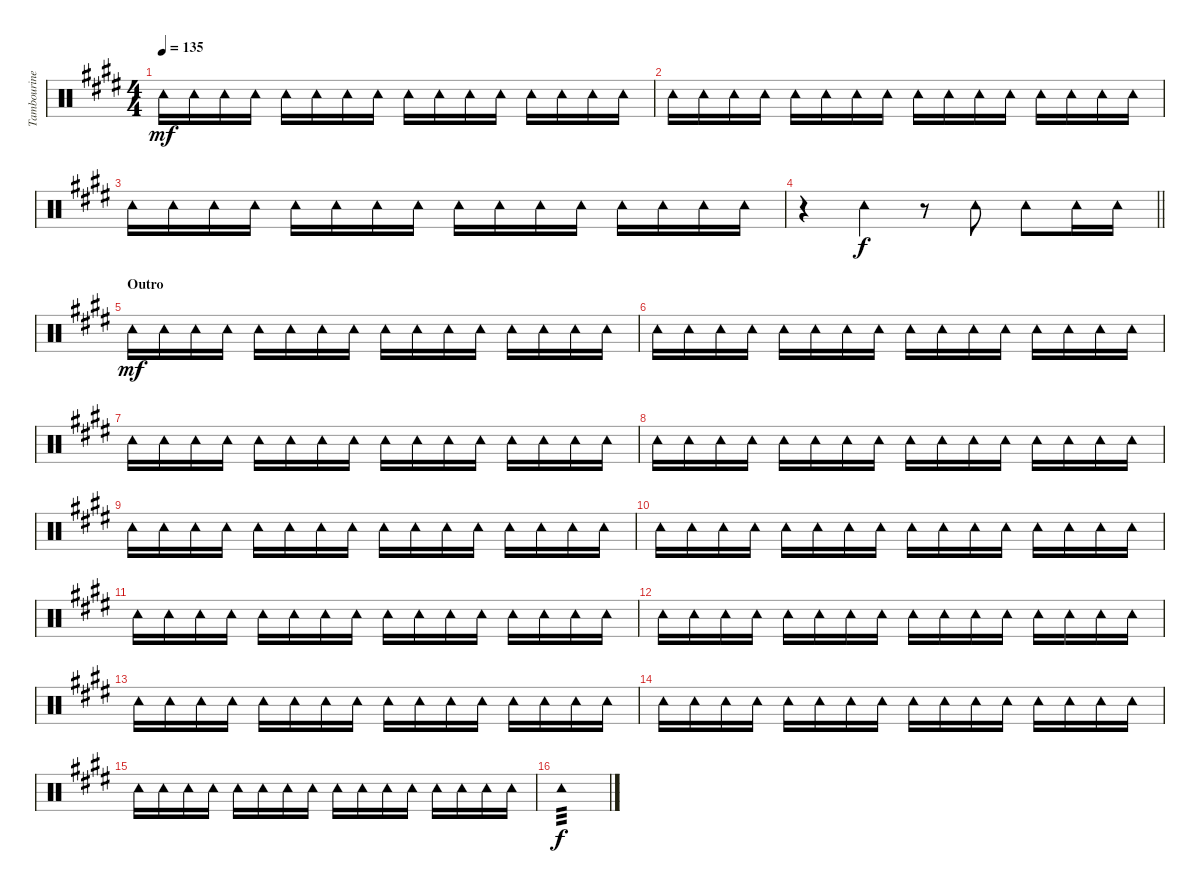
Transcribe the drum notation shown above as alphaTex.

\track ("Tambourine" "Tambourine") {instrument percussion}
\staff {score}
\articulation defaults
\ts (4 4)
\tempo 135
\clef neutral
\ks e "Tambourine (hit)".16{dy mf} "Tambourine (hit)".16 "Tambourine (hit)".16 "Tambourine (hit)".16 "Tambourine (hit)".16 "Tambourine (hit)".16 "Tambourine (hit)".16 "Tambourine (hit)".16 "Tambourine (hit)".16 "Tambourine (hit)".16 "Tambourine (hit)".16 "Tambourine (hit)".16 "Tambourine (hit)".16 "Tambourine (hit)".16 "Tambourine (hit)".16 "Tambourine (hit)".16
|
"Tambourine (hit)".16 "Tambourine (hit)".16 "Tambourine (hit)".16 "Tambourine (hit)".16 "Tambourine (hit)".16 "Tambourine (hit)".16 "Tambourine (hit)".16 "Tambourine (hit)".16 "Tambourine (hit)".16 "Tambourine (hit)".16 "Tambourine (hit)".16 "Tambourine (hit)".16 "Tambourine (hit)".16 "Tambourine (hit)".16 "Tambourine (hit)".16 "Tambourine (hit)".16 |
"Tambourine (hit)".16 "Tambourine (hit)".16 "Tambourine (hit)".16 "Tambourine (hit)".16 "Tambourine (hit)".16 "Tambourine (hit)".16 "Tambourine (hit)".16 "Tambourine (hit)".16 "Tambourine (hit)".16 "Tambourine (hit)".16 "Tambourine (hit)".16 "Tambourine (hit)".16 "Tambourine (hit)".16 "Tambourine (hit)".16 "Tambourine (hit)".16 "Tambourine (hit)".16 |
\barLineRight lightlight
r.4 "Tambourine (hit)".4{dy f} r.8 "Tambourine (hit)".8 "Tambourine (hit)".8 "Tambourine (hit)".16 "Tambourine (hit)".16 |
\section ("" "Outro")
"Tambourine (hit)".16{dy mf} "Tambourine (hit)".16 "Tambourine (hit)".16 "Tambourine (hit)".16 "Tambourine (hit)".16 "Tambourine (hit)".16 "Tambourine (hit)".16 "Tambourine (hit)".16 "Tambourine (hit)".16 "Tambourine (hit)".16 "Tambourine (hit)".16 "Tambourine (hit)".16 "Tambourine (hit)".16 "Tambourine (hit)".16 "Tambourine (hit)".16 "Tambourine (hit)".16 |
"Tambourine (hit)".16 "Tambourine (hit)".16 "Tambourine (hit)".16 "Tambourine (hit)".16 "Tambourine (hit)".16 "Tambourine (hit)".16 "Tambourine (hit)".16 "Tambourine (hit)".16 "Tambourine (hit)".16 "Tambourine (hit)".16 "Tambourine (hit)".16 "Tambourine (hit)".16 "Tambourine (hit)".16 "Tambourine (hit)".16 "Tambourine (hit)".16 "Tambourine (hit)".16 |
"Tambourine (hit)".16 "Tambourine (hit)".16 "Tambourine (hit)".16 "Tambourine (hit)".16 "Tambourine (hit)".16 "Tambourine (hit)".16 "Tambourine (hit)".16 "Tambourine (hit)".16 "Tambourine (hit)".16 "Tambourine (hit)".16 "Tambourine (hit)".16 "Tambourine (hit)".16 "Tambourine (hit)".16 "Tambourine (hit)".16 "Tambourine (hit)".16 "Tambourine (hit)".16 |
"Tambourine (hit)".16 "Tambourine (hit)".16 "Tambourine (hit)".16 "Tambourine (hit)".16 "Tambourine (hit)".16 "Tambourine (hit)".16 "Tambourine (hit)".16 "Tambourine (hit)".16 "Tambourine (hit)".16 "Tambourine (hit)".16 "Tambourine (hit)".16 "Tambourine (hit)".16 "Tambourine (hit)".16 "Tambourine (hit)".16 "Tambourine (hit)".16 "Tambourine (hit)".16 |
"Tambourine (hit)".16 "Tambourine (hit)".16 "Tambourine (hit)".16 "Tambourine (hit)".16 "Tambourine (hit)".16 "Tambourine (hit)".16 "Tambourine (hit)".16 "Tambourine (hit)".16 "Tambourine (hit)".16 "Tambourine (hit)".16 "Tambourine (hit)".16 "Tambourine (hit)".16 "Tambourine (hit)".16 "Tambourine (hit)".16 "Tambourine (hit)".16 "Tambourine (hit)".16 |
"Tambourine (hit)".16 "Tambourine (hit)".16 "Tambourine (hit)".16 "Tambourine (hit)".16 "Tambourine (hit)".16 "Tambourine (hit)".16 "Tambourine (hit)".16 "Tambourine (hit)".16 "Tambourine (hit)".16 "Tambourine (hit)".16 "Tambourine (hit)".16 "Tambourine (hit)".16 "Tambourine (hit)".16 "Tambourine (hit)".16 "Tambourine (hit)".16 "Tambourine (hit)".16 |
"Tambourine (hit)".16 "Tambourine (hit)".16 "Tambourine (hit)".16 "Tambourine (hit)".16 "Tambourine (hit)".16 "Tambourine (hit)".16 "Tambourine (hit)".16 "Tambourine (hit)".16 "Tambourine (hit)".16 "Tambourine (hit)".16 "Tambourine (hit)".16 "Tambourine (hit)".16 "Tambourine (hit)".16 "Tambourine (hit)".16 "Tambourine (hit)".16 "Tambourine (hit)".16 |
"Tambourine (hit)".16 "Tambourine (hit)".16 "Tambourine (hit)".16 "Tambourine (hit)".16 "Tambourine (hit)".16 "Tambourine (hit)".16 "Tambourine (hit)".16 "Tambourine (hit)".16 "Tambourine (hit)".16 "Tambourine (hit)".16 "Tambourine (hit)".16 "Tambourine (hit)".16 "Tambourine (hit)".16 "Tambourine (hit)".16 "Tambourine (hit)".16 "Tambourine (hit)".16 |
"Tambourine (hit)".16 "Tambourine (hit)".16 "Tambourine (hit)".16 "Tambourine (hit)".16 "Tambourine (hit)".16 "Tambourine (hit)".16 "Tambourine (hit)".16 "Tambourine (hit)".16 "Tambourine (hit)".16 "Tambourine (hit)".16 "Tambourine (hit)".16 "Tambourine (hit)".16 "Tambourine (hit)".16 "Tambourine (hit)".16 "Tambourine (hit)".16 "Tambourine (hit)".16 |
"Tambourine (hit)".16 "Tambourine (hit)".16 "Tambourine (hit)".16 "Tambourine (hit)".16 "Tambourine (hit)".16 "Tambourine (hit)".16 "Tambourine (hit)".16 "Tambourine (hit)".16 "Tambourine (hit)".16 "Tambourine (hit)".16 "Tambourine (hit)".16 "Tambourine (hit)".16 "Tambourine (hit)".16 "Tambourine (hit)".16 "Tambourine (hit)".16 "Tambourine (hit)".16 |
"Tambourine (hit)".16 "Tambourine (hit)".16 "Tambourine (hit)".16 "Tambourine (hit)".16 "Tambourine (hit)".16 "Tambourine (hit)".16 "Tambourine (hit)".16 "Tambourine (hit)".16 "Tambourine (hit)".16 "Tambourine (hit)".16 "Tambourine (hit)".16 "Tambourine (hit)".16 "Tambourine (hit)".16 "Tambourine (hit)".16 "Tambourine (hit)".16 "Tambourine (hit)".16 |
"Tambourine (hit)".1{tp 3 dy f}
